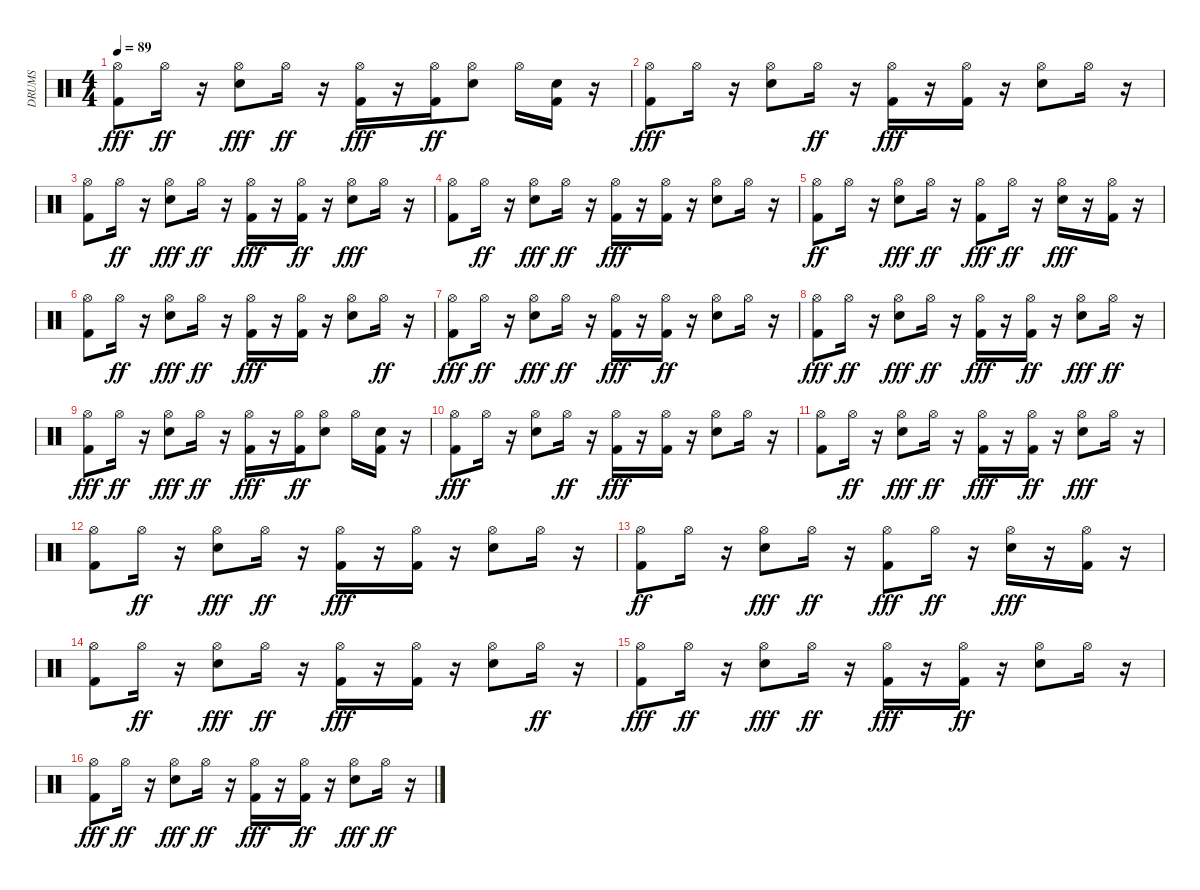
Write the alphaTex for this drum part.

\track ("DRUMS" "DRUMS") {instrument percussion}
\staff {score}
\articulation defaults
\ts (4 4)
\tempo 89
\clef neutral
\ks c
("Hi-Hat (open)" "Kick (hit) 2").8{dy fff} "Hi-Hat (open)".16{dy ff} r.16 ("Electric Snare (hit)" "Hi-Hat (open)").8{dy fff} "Hi-Hat (open)".16{dy ff} r.16 ("Hi-Hat (open)" "Kick (hit) 2").16{dy fff} r.16 ("Kick (hit) 2" "Hi-Hat (open)").16{dy ff} ("Electric Snare (hit)" "Hi-Hat (open)").8 "Hi-Hat (open)".16 ("Kick (hit) 2" "Snare (hit) 2").16 r.16 |
("Hi-Hat (open)" "Kick (hit) 2").8{dy fff} "Hi-Hat (open)".16 r.16 ("Electric Snare (hit)" "Hi-Hat (open)").8 "Hi-Hat (open)".16{dy ff} r.16 ("Hi-Hat (open)" "Kick (hit) 2").16{dy fff} r.16 ("Kick (hit) 2" "Hi-Hat (open)").16 r.16 ("Hi-Hat (open)" "Electric Snare (hit)").8 "Hi-Hat (open)".16 r.16 |
("Hi-Hat (open)" "Kick (hit) 2").8 "Hi-Hat (open)".16{dy ff} r.16 ("Hi-Hat (open)" "Electric Snare (hit)").8{dy fff} "Hi-Hat (open)".16{dy ff} r.16 ("Hi-Hat (open)" "Kick (hit) 2").16{dy fff} r.16 ("Kick (hit) 2" "Hi-Hat (open)").16{dy ff} r.16 ("Electric Snare (hit)" "Hi-Hat (open)").8{dy fff} "Hi-Hat (open)".16 r.16 |
("Hi-Hat (open)" "Kick (hit) 2").8 "Hi-Hat (open)".16{dy ff} r.16 ("Hi-Hat (open)" "Electric Snare (hit)").8{dy fff} "Hi-Hat (open)".16{dy ff} r.16 ("Hi-Hat (open)" "Kick (hit) 2").16{dy fff} r.16 ("Kick (hit) 2" "Hi-Hat (open)").16 r.16 ("Hi-Hat (open)" "Electric Snare (hit)").8 "Hi-Hat (open)".16 r.16 |
("Hi-Hat (open)" "Kick (hit) 2").8{dy ff} "Hi-Hat (open)".16 r.16 ("Electric Snare (hit)" "Hi-Hat (open)").8{dy fff} "Hi-Hat (open)".16{dy ff} r.16 ("Hi-Hat (open)" "Kick (hit) 2").8{dy fff} "Hi-Hat (open)".16{dy ff} r.16 ("Electric Snare (hit)" "Hi-Hat (open)").16{dy fff} r.16 ("Hi-Hat (open)" "Kick (hit) 2").16 r.16 |
("Hi-Hat (open)" "Kick (hit) 2").8 "Hi-Hat (open)".16{dy ff} r.16 ("Hi-Hat (open)" "Electric Snare (hit)").8{dy fff} "Hi-Hat (open)".16{dy ff} r.16 ("Hi-Hat (open)" "Kick (hit) 2").16{dy fff} r.16 ("Hi-Hat (open)" "Kick (hit) 2").16 r.16 ("Hi-Hat (open)" "Electric Snare (hit)").8 "Hi-Hat (open)".16{dy ff} r.16 |
("Hi-Hat (open)" "Kick (hit) 2").8{dy fff} "Hi-Hat (open)".16{dy ff} r.16 ("Electric Snare (hit)" "Hi-Hat (open)").8{dy fff} "Hi-Hat (open)".16{dy ff} r.16 ("Hi-Hat (open)" "Kick (hit) 2").16{dy fff} r.16 ("Hi-Hat (open)" "Kick (hit) 2").16{dy ff} r.16 ("Electric Snare (hit)" "Hi-Hat (open)").8 "Hi-Hat (open)".16 r.16 |
("Hi-Hat (open)" "Kick (hit) 2").8{dy fff} "Hi-Hat (open)".16{dy ff} r.16 ("Electric Snare (hit)" "Hi-Hat (open)").8{dy fff} "Hi-Hat (open)".16{dy ff} r.16 ("Hi-Hat (open)" "Kick (hit) 2").16{dy fff} r.16 ("Hi-Hat (open)" "Kick (hit) 2").16{dy ff} r.16 ("Electric Snare (hit)" "Hi-Hat (open)").8{dy fff} "Hi-Hat (open)".16{dy ff} r.16 |
("Hi-Hat (open)" "Kick (hit) 2").8{dy fff} "Hi-Hat (open)".16{dy ff} r.16 ("Electric Snare (hit)" "Hi-Hat (open)").8{dy fff} "Hi-Hat (open)".16{dy ff} r.16 ("Hi-Hat (open)" "Kick (hit) 2").16{dy fff} r.16 ("Kick (hit) 2" "Hi-Hat (open)").16{dy ff} ("Electric Snare (hit)" "Hi-Hat (open)").8 "Hi-Hat (open)".16 ("Kick (hit) 2" "Snare (hit) 2").16 r.16 |
("Hi-Hat (open)" "Kick (hit) 2").8{dy fff} "Hi-Hat (open)".16 r.16 ("Electric Snare (hit)" "Hi-Hat (open)").8 "Hi-Hat (open)".16{dy ff} r.16 ("Hi-Hat (open)" "Kick (hit) 2").16{dy fff} r.16 ("Kick (hit) 2" "Hi-Hat (open)").16 r.16 ("Hi-Hat (open)" "Electric Snare (hit)").8 "Hi-Hat (open)".16 r.16 |
("Hi-Hat (open)" "Kick (hit) 2").8 "Hi-Hat (open)".16{dy ff} r.16 ("Hi-Hat (open)" "Electric Snare (hit)").8{dy fff} "Hi-Hat (open)".16{dy ff} r.16 ("Hi-Hat (open)" "Kick (hit) 2").16{dy fff} r.16 ("Kick (hit) 2" "Hi-Hat (open)").16{dy ff} r.16 ("Electric Snare (hit)" "Hi-Hat (open)").8{dy fff} "Hi-Hat (open)".16 r.16 |
("Hi-Hat (open)" "Kick (hit) 2").8 "Hi-Hat (open)".16{dy ff} r.16 ("Hi-Hat (open)" "Electric Snare (hit)").8{dy fff} "Hi-Hat (open)".16{dy ff} r.16 ("Hi-Hat (open)" "Kick (hit) 2").16{dy fff} r.16 ("Kick (hit) 2" "Hi-Hat (open)").16 r.16 ("Hi-Hat (open)" "Electric Snare (hit)").8 "Hi-Hat (open)".16 r.16 |
("Hi-Hat (open)" "Kick (hit) 2").8{dy ff} "Hi-Hat (open)".16 r.16 ("Electric Snare (hit)" "Hi-Hat (open)").8{dy fff} "Hi-Hat (open)".16{dy ff} r.16 ("Hi-Hat (open)" "Kick (hit) 2").8{dy fff} "Hi-Hat (open)".16{dy ff} r.16 ("Electric Snare (hit)" "Hi-Hat (open)").16{dy fff} r.16 ("Hi-Hat (open)" "Kick (hit) 2").16 r.16 |
("Hi-Hat (open)" "Kick (hit) 2").8 "Hi-Hat (open)".16{dy ff} r.16 ("Hi-Hat (open)" "Electric Snare (hit)").8{dy fff} "Hi-Hat (open)".16{dy ff} r.16 ("Hi-Hat (open)" "Kick (hit) 2").16{dy fff} r.16 ("Hi-Hat (open)" "Kick (hit) 2").16 r.16 ("Hi-Hat (open)" "Electric Snare (hit)").8 "Hi-Hat (open)".16{dy ff} r.16 |
("Hi-Hat (open)" "Kick (hit) 2").8{dy fff} "Hi-Hat (open)".16{dy ff} r.16 ("Electric Snare (hit)" "Hi-Hat (open)").8{dy fff} "Hi-Hat (open)".16{dy ff} r.16 ("Hi-Hat (open)" "Kick (hit) 2").16{dy fff} r.16 ("Hi-Hat (open)" "Kick (hit) 2").16{dy ff} r.16 ("Electric Snare (hit)" "Hi-Hat (open)").8 "Hi-Hat (open)".16 r.16 |
("Hi-Hat (open)" "Kick (hit) 2").8{dy fff} "Hi-Hat (open)".16{dy ff} r.16 ("Electric Snare (hit)" "Hi-Hat (open)").8{dy fff} "Hi-Hat (open)".16{dy ff} r.16 ("Hi-Hat (open)" "Kick (hit) 2").16{dy fff} r.16 ("Hi-Hat (open)" "Kick (hit) 2").16{dy ff} r.16 ("Electric Snare (hit)" "Hi-Hat (open)").8{dy fff} "Hi-Hat (open)".16{dy ff} r.16
